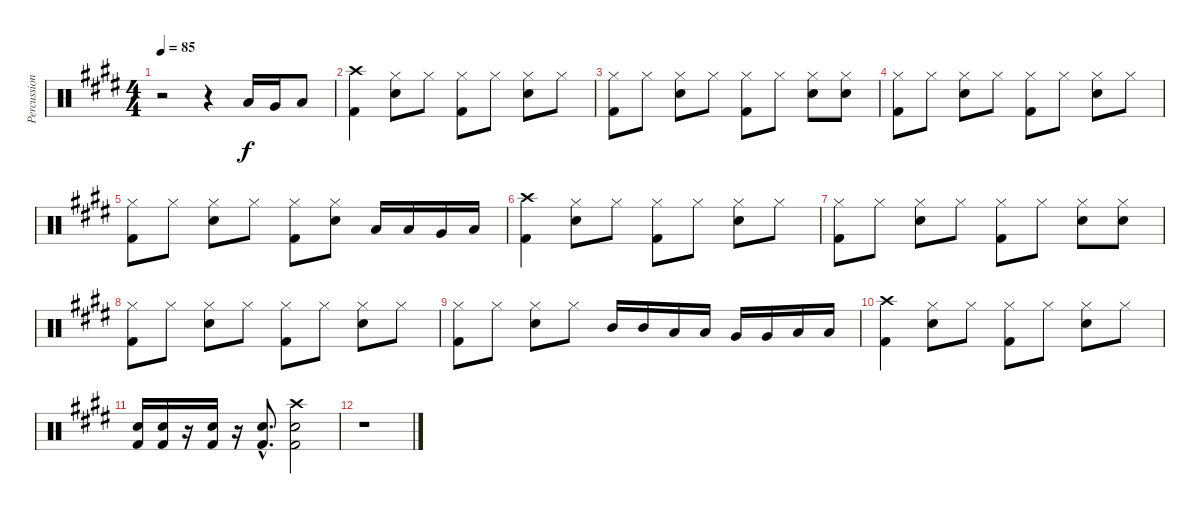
\track ("Percussion" "Percussion") {instrument percussion}
\staff {score}
\articulation defaults
\ts (4 4)
\tempo 85
\clef neutral
\ks e
r.2{dy f} r.4 "Low Tom (hit)".16 "Very Low Tom (hit)".16 "Low Floor Tom (hit)".8 |
("Crash high (hit)" "Kick (hit) 2").4 ("Hi-Hat (closed)" "Snare (hit) 2").8 "Hi-Hat (closed)".8 ("Hi-Hat (closed)" "Kick (hit) 2").8 "Hi-Hat (closed)".8 ("Hi-Hat (closed)" "Snare (hit) 2").8 "Hi-Hat (closed)".8 |
("Hi-Hat (closed)" "Kick (hit) 2").8 "Hi-Hat (closed)".8 ("Hi-Hat (closed)" "Snare (hit) 2").8 "Hi-Hat (closed)".8 ("Hi-Hat (closed)" "Kick (hit) 2").8 "Hi-Hat (closed)".8 ("Hi-Hat (closed)" "Snare (hit) 2").8 ("Hi-Hat (closed)" "Snare (hit) 2").8 |
("Hi-Hat (closed)" "Kick (hit) 2").8 "Hi-Hat (closed)".8 ("Hi-Hat (closed)" "Snare (hit) 2").8 "Hi-Hat (closed)".8 ("Hi-Hat (closed)" "Kick (hit) 2").8 "Hi-Hat (closed)".8 ("Hi-Hat (closed)" "Snare (hit) 2").8 "Hi-Hat (closed)".8 |
("Hi-Hat (closed)" "Kick (hit) 2").8 "Hi-Hat (closed)".8 ("Hi-Hat (closed)" "Snare (hit) 2").8 "Hi-Hat (closed)".8 ("Hi-Hat (closed)" "Kick (hit) 2").8 ("Hi-Hat (closed)" "Snare (hit) 2").8 "Low Tom (hit)".16 "Low Tom (hit)".16 "Very Low Tom (hit)".16 "Low Floor Tom (hit)".16 |
("Crash high (hit)" "Kick (hit) 2").4 ("Hi-Hat (closed)" "Snare (hit) 2").8 "Hi-Hat (closed)".8 ("Hi-Hat (closed)" "Kick (hit) 2").8 "Hi-Hat (closed)".8 ("Hi-Hat (closed)" "Snare (hit) 2").8 "Hi-Hat (closed)".8 |
("Hi-Hat (closed)" "Kick (hit) 2").8 "Hi-Hat (closed)".8 ("Hi-Hat (closed)" "Snare (hit) 2").8 "Hi-Hat (closed)".8 ("Hi-Hat (closed)" "Kick (hit) 2").8 "Hi-Hat (closed)".8 ("Hi-Hat (closed)" "Snare (hit) 2").8 ("Hi-Hat (closed)" "Snare (hit) 2").8 |
("Hi-Hat (closed)" "Kick (hit) 2").8 "Hi-Hat (closed)".8 ("Hi-Hat (closed)" "Snare (hit) 2").8 "Hi-Hat (closed)".8 ("Hi-Hat (closed)" "Kick (hit) 2").8 "Hi-Hat (closed)".8 ("Hi-Hat (closed)" "Snare (hit) 2").8 "Hi-Hat (closed)".8 |
("Hi-Hat (closed)" "Kick (hit) 2").8 "Hi-Hat (closed)".8 ("Hi-Hat (closed)" "Snare (hit) 2").8 "Hi-Hat (closed)".8 "Mid Tom (hit)".16 "Mid Tom (hit)".16 "Low Tom (hit)".16 "Low Tom (hit)".16 "Very Low Tom (hit)".16 "Very Low Tom (hit)".16 "Low Floor Tom (hit)".16 "Low Floor Tom (hit)".16 |
("Crash high (hit)" "Kick (hit) 2").4 ("Hi-Hat (closed)" "Snare (hit) 2").8 "Hi-Hat (closed)".8 ("Hi-Hat (closed)" "Kick (hit) 2").8 "Hi-Hat (closed)".8 ("Hi-Hat (closed)" "Snare (hit) 2").8 "Hi-Hat (closed)".8 |
("Snare (hit) 2" "Kick (hit) 2").16 ("Snare (hit) 2" "Kick (hit) 2").16 r.16 ("Snare (hit) 2" "Kick (hit) 2").16 r.16 ("Snare (hit) 2"{hac} "Kick (hit) 2"{hac}).8{d} ("Crash high (hit)" "Snare (hit) 2" "Kick (hit) 2").2 |
r.1
